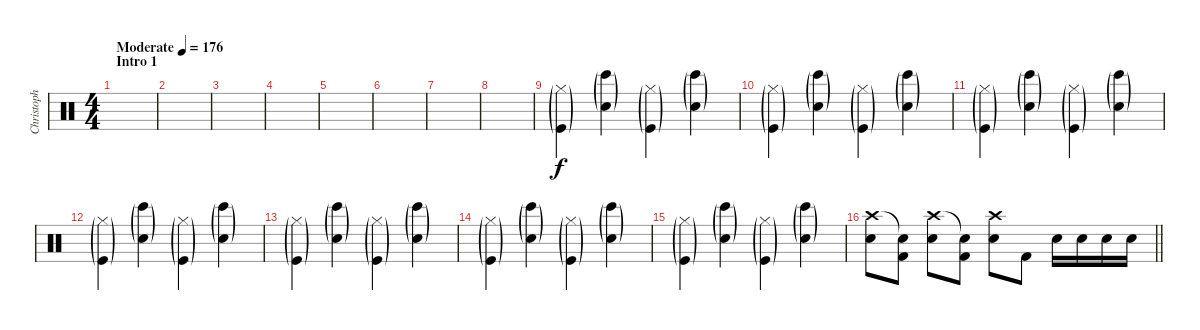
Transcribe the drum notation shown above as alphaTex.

\track ("Christoph" "Christoph") {instrument percussion}
\staff {score}
\articulation defaults
\ts (4 4)
\section ("" "Intro 1")
\tempo (176 "Moderate")
\clef neutral
\ks c
|
|
|
|
|
|
|
|
("Hi-Hat (closed)"{g} "Kick (hit)"{g}).4 ("Bongo High (hit)"{g} "Electric Snare (hit)"{g}).4 ("Hi-Hat (closed)"{g} "Kick (hit)"{g}).4 ("Bongo High (hit)"{g} "Electric Snare (hit)"{g}).4 |
("Hi-Hat (closed)"{g} "Kick (hit)"{g}).4 ("Bongo High (hit)"{g} "Electric Snare (hit)"{g}).4 ("Hi-Hat (closed)"{g} "Kick (hit)"{g}).4 ("Bongo High (hit)"{g} "Electric Snare (hit)"{g}).4 |
("Hi-Hat (closed)"{g} "Kick (hit)"{g}).4 ("Bongo High (hit)"{g} "Electric Snare (hit)"{g}).4 ("Hi-Hat (closed)"{g} "Kick (hit)"{g}).4 ("Bongo High (hit)"{g} "Electric Snare (hit)"{g}).4 |
("Hi-Hat (closed)"{g} "Kick (hit)"{g}).4 ("Bongo High (hit)"{g} "Electric Snare (hit)"{g}).4 ("Hi-Hat (closed)"{g} "Kick (hit)"{g}).4 ("Bongo High (hit)"{g} "Electric Snare (hit)"{g}).4 |
("Hi-Hat (closed)"{g} "Kick (hit)"{g}).4 ("Bongo High (hit)"{g} "Electric Snare (hit)"{g}).4 ("Hi-Hat (closed)"{g} "Kick (hit)"{g}).4 ("Bongo High (hit)"{g} "Electric Snare (hit)"{g}).4 |
("Hi-Hat (closed)"{g} "Kick (hit)"{g}).4 ("Bongo High (hit)"{g} "Electric Snare (hit)"{g}).4 ("Hi-Hat (closed)"{g} "Kick (hit)"{g}).4 ("Bongo High (hit)"{g} "Electric Snare (hit)"{g}).4 |
("Hi-Hat (closed)"{g} "Kick (hit)"{g}).4 ("Bongo High (hit)"{g} "Electric Snare (hit)"{g}).4 ("Hi-Hat (closed)"{g} "Kick (hit)"{g}).4 ("Bongo High (hit)"{g} "Electric Snare (hit)"{g}).4 |
\barLineRight lightlight
("Crash high (hit)" "Snare (hit) 2").8{dy f} ("Snare (hit)"{t} "Kick (hit) 2").8 ("Crash high (hit)" "Snare (hit) 2").8 ("Snare (hit)"{t} "Kick (hit) 2").8 ("Crash high (hit)" "Snare (hit) 2").8 "Kick (hit) 2".8 "Snare (hit) 2".16 "Snare (hit) 2".16 "Snare (hit) 2".16 "Snare (hit) 2".16
